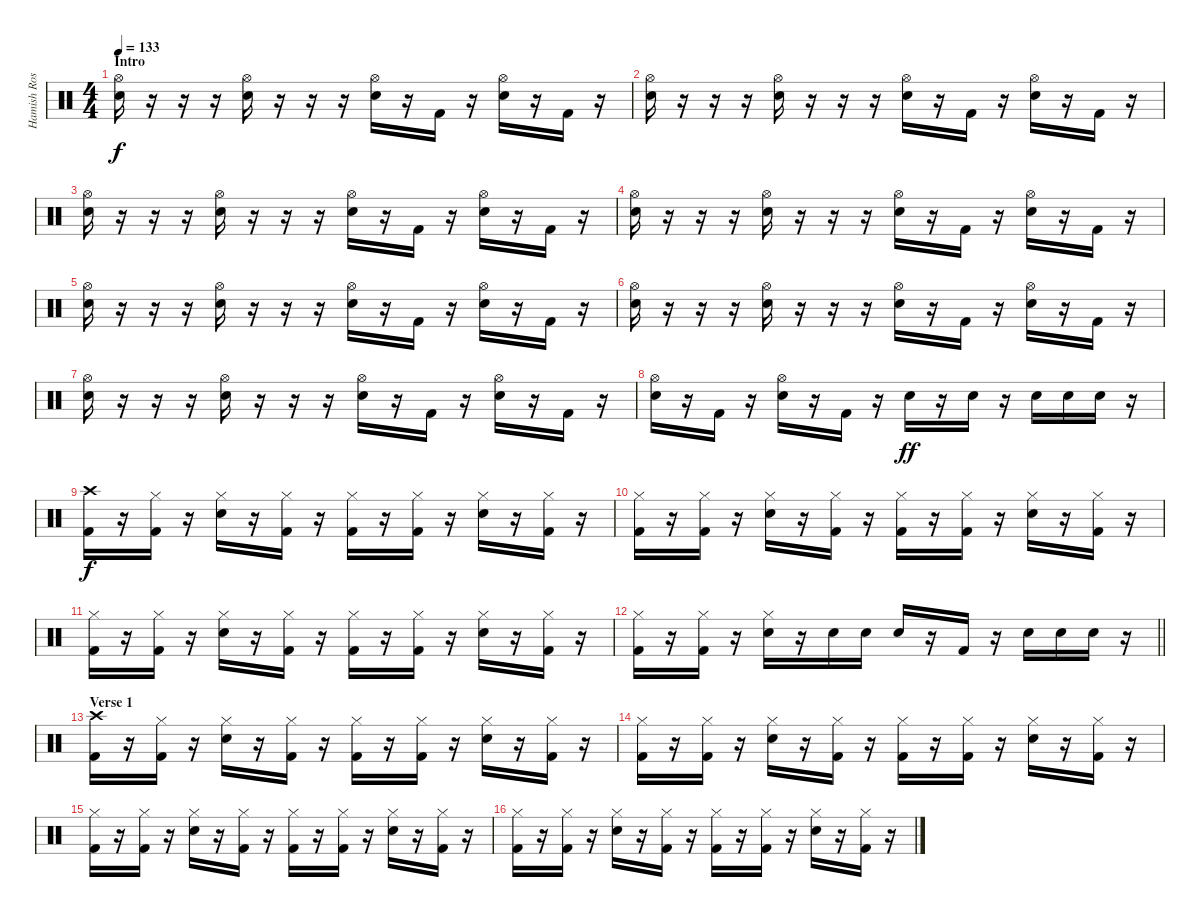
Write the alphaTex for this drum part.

\track ("Hamish Rosser (Main-Tune Drums Track)" "Hamish Ros") {instrument percussion}
\staff {score}
\articulation defaults
\ts (4 4)
\section ("" "Intro")
\tempo 133
\clef neutral
\ks c
("Hi-Hat (open)" "Snare (hit) 2").16{dy f} r.16 r.16 r.16 ("Hi-Hat (open)" "Snare (hit) 2").16 r.16 r.16 r.16 ("Hi-Hat (open)" "Snare (hit) 2").16 r.16 "Kick (hit) 2".16 r.16 ("Hi-Hat (open)" "Snare (hit) 2").16 r.16 "Kick (hit) 2".16 r.16 |
("Hi-Hat (open)" "Snare (hit) 2").16 r.16 r.16 r.16 ("Hi-Hat (open)" "Snare (hit) 2").16 r.16 r.16 r.16 ("Hi-Hat (open)" "Snare (hit) 2").16 r.16 "Kick (hit) 2".16 r.16 ("Hi-Hat (open)" "Snare (hit) 2").16 r.16 "Kick (hit) 2".16 r.16 |
("Hi-Hat (open)" "Snare (hit) 2").16 r.16 r.16 r.16 ("Hi-Hat (open)" "Snare (hit) 2").16 r.16 r.16 r.16 ("Hi-Hat (open)" "Snare (hit) 2").16 r.16 "Kick (hit) 2".16 r.16 ("Hi-Hat (open)" "Snare (hit) 2").16 r.16 "Kick (hit) 2".16 r.16 |
("Hi-Hat (open)" "Snare (hit) 2").16 r.16 r.16 r.16 ("Hi-Hat (open)" "Snare (hit) 2").16 r.16 r.16 r.16 ("Hi-Hat (open)" "Snare (hit) 2").16 r.16 "Kick (hit) 2".16 r.16 ("Hi-Hat (open)" "Snare (hit) 2").16 r.16 "Kick (hit) 2".16 r.16 |
("Hi-Hat (open)" "Snare (hit) 2").16 r.16 r.16 r.16 ("Hi-Hat (open)" "Snare (hit) 2").16 r.16 r.16 r.16 ("Hi-Hat (open)" "Snare (hit) 2").16 r.16 "Kick (hit) 2".16 r.16 ("Hi-Hat (open)" "Snare (hit) 2").16 r.16 "Kick (hit) 2".16 r.16 |
("Hi-Hat (open)" "Snare (hit) 2").16 r.16 r.16 r.16 ("Hi-Hat (open)" "Snare (hit) 2").16 r.16 r.16 r.16 ("Hi-Hat (open)" "Snare (hit) 2").16 r.16 "Kick (hit) 2".16 r.16 ("Hi-Hat (open)" "Snare (hit) 2").16 r.16 "Kick (hit) 2".16 r.16 |
("Hi-Hat (open)" "Snare (hit) 2").16 r.16 r.16 r.16 ("Hi-Hat (open)" "Snare (hit) 2").16 r.16 r.16 r.16 ("Hi-Hat (open)" "Snare (hit) 2").16 r.16 "Kick (hit) 2".16 r.16 ("Hi-Hat (open)" "Snare (hit) 2").16 r.16 "Kick (hit) 2".16 r.16 |
("Hi-Hat (open)" "Snare (hit) 2").16 r.16 "Kick (hit) 2".16 r.16 ("Hi-Hat (open)" "Snare (hit) 2").16 r.16 "Kick (hit) 2".16 r.16 "Snare (hit) 2".16{dy ff} r.16 "Snare (hit) 2".16 r.16 "Snare (hit) 2".16 "Snare (hit) 2".16 "Snare (hit) 2".16 r.16 |
("Crash high (hit)" "Kick (hit) 2").16{dy f} r.16 ("Hi-Hat (closed)" "Kick (hit) 2").16 r.16 ("Hi-Hat (closed)" "Snare (hit) 2").16 r.16 ("Hi-Hat (closed)" "Kick (hit) 2").16 r.16 ("Hi-Hat (closed)" "Kick (hit) 2").16 r.16 ("Hi-Hat (closed)" "Kick (hit) 2").16 r.16 ("Hi-Hat (closed)" "Snare (hit) 2").16 r.16 ("Hi-Hat (closed)" "Kick (hit) 2").16 r.16 |
("Hi-Hat (closed)" "Kick (hit) 2").16 r.16 ("Hi-Hat (closed)" "Kick (hit) 2").16 r.16 ("Hi-Hat (closed)" "Snare (hit) 2").16 r.16 ("Hi-Hat (closed)" "Kick (hit) 2").16 r.16 ("Hi-Hat (closed)" "Kick (hit) 2").16 r.16 ("Hi-Hat (closed)" "Kick (hit) 2").16 r.16 ("Hi-Hat (closed)" "Snare (hit) 2").16 r.16 ("Hi-Hat (closed)" "Kick (hit) 2").16 r.16 |
("Hi-Hat (closed)" "Kick (hit) 2").16 r.16 ("Hi-Hat (closed)" "Kick (hit) 2").16 r.16 ("Hi-Hat (closed)" "Snare (hit) 2").16 r.16 ("Hi-Hat (closed)" "Kick (hit) 2").16 r.16 ("Hi-Hat (closed)" "Kick (hit) 2").16 r.16 ("Hi-Hat (closed)" "Kick (hit) 2").16 r.16 ("Hi-Hat (closed)" "Snare (hit) 2").16 r.16 ("Hi-Hat (closed)" "Kick (hit) 2").16 r.16 |
\barLineRight lightlight
("Hi-Hat (closed)" "Kick (hit) 2").16 r.16 ("Hi-Hat (closed)" "Kick (hit) 2").16 r.16 ("Hi-Hat (closed)" "Snare (hit) 2").16 r.16 "Snare (hit) 2".16 "Snare (hit) 2".16 "Snare (hit) 2".16 r.16 "Kick (hit) 2".16 r.16 "Snare (hit) 2".16 "Snare (hit) 2".16 "Snare (hit) 2".16 r.16 |
\section ("" "Verse 1")
("Crash high (hit)" "Kick (hit) 2").16 r.16 ("Hi-Hat (closed)" "Kick (hit) 2").16 r.16 ("Hi-Hat (closed)" "Snare (hit) 2").16 r.16 ("Hi-Hat (closed)" "Kick (hit) 2").16 r.16 ("Hi-Hat (closed)" "Kick (hit) 2").16 r.16 ("Hi-Hat (closed)" "Kick (hit) 2").16 r.16 ("Hi-Hat (closed)" "Snare (hit) 2").16 r.16 ("Hi-Hat (closed)" "Kick (hit) 2").16 r.16 |
("Hi-Hat (closed)" "Kick (hit) 2").16 r.16 ("Hi-Hat (closed)" "Kick (hit) 2").16 r.16 ("Hi-Hat (closed)" "Snare (hit) 2").16 r.16 ("Hi-Hat (closed)" "Kick (hit) 2").16 r.16 ("Hi-Hat (closed)" "Kick (hit) 2").16 r.16 ("Hi-Hat (closed)" "Kick (hit) 2").16 r.16 ("Hi-Hat (closed)" "Snare (hit) 2").16 r.16 ("Hi-Hat (closed)" "Kick (hit) 2").16 r.16 |
("Hi-Hat (closed)" "Kick (hit) 2").16 r.16 ("Hi-Hat (closed)" "Kick (hit) 2").16 r.16 ("Hi-Hat (closed)" "Snare (hit) 2").16 r.16 ("Hi-Hat (closed)" "Kick (hit) 2").16 r.16 ("Hi-Hat (closed)" "Kick (hit) 2").16 r.16 ("Hi-Hat (closed)" "Kick (hit) 2").16 r.16 ("Hi-Hat (closed)" "Snare (hit) 2").16 r.16 ("Hi-Hat (closed)" "Kick (hit) 2").16 r.16 |
("Hi-Hat (closed)" "Kick (hit) 2").16 r.16 ("Hi-Hat (closed)" "Kick (hit) 2").16 r.16 ("Hi-Hat (closed)" "Snare (hit) 2").16 r.16 ("Hi-Hat (closed)" "Kick (hit) 2").16 r.16 ("Hi-Hat (closed)" "Kick (hit) 2").16 r.16 ("Hi-Hat (closed)" "Kick (hit) 2").16 r.16 ("Hi-Hat (closed)" "Snare (hit) 2").16 r.16 ("Hi-Hat (closed)" "Kick (hit) 2").16 r.16
